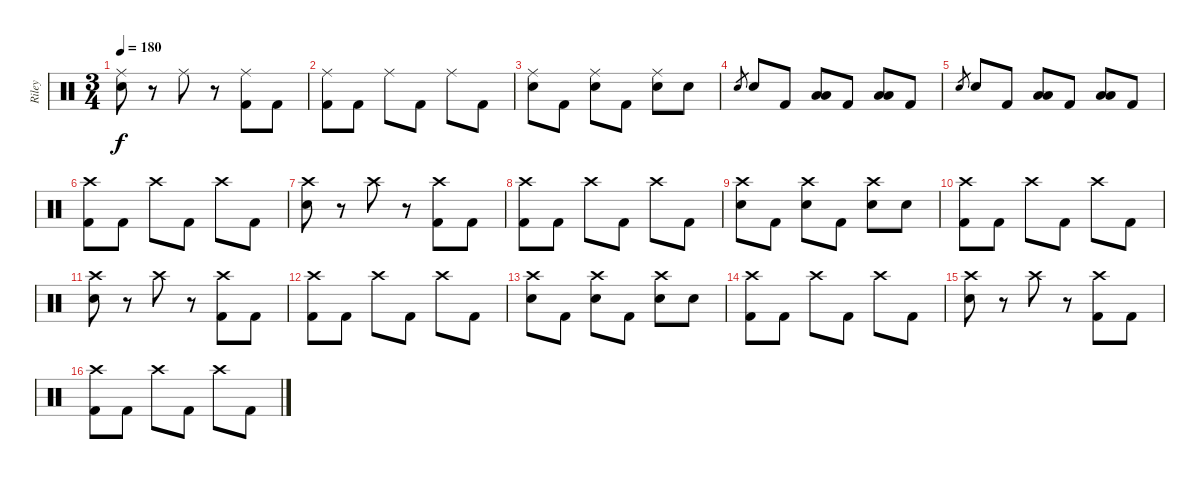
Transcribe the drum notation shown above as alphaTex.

\track ("Riley" "Riley") {instrument percussion}
\staff {score}
\articulation defaults
\ts (3 4)
\tempo 180
\clef neutral
\ks c
("Ride (middle)" "Electric Snare (hit)").8{dy f} r.8 "Ride (middle)".8 r.8 ("Ride (middle)" "Kick (hit) 2").8 "Kick (hit) 2".8 |
("Ride (middle)" "Kick (hit) 2").8 "Kick (hit) 2".8 "Ride (middle)".8 "Kick (hit) 2".8 "Ride (middle)".8 "Kick (hit) 2".8 |
("Ride (middle)" "Electric Snare (hit)").8 "Kick (hit) 2".8 ("Ride (middle)" "Electric Snare (hit)").8 "Kick (hit) 2".8 ("Ride (middle)" "Electric Snare (hit)").8 "Electric Snare (hit)".8 |
"Electric Snare (hit)".8{gr} "Electric Snare (hit)".8 "Kick (hit) 2".8 ("Low Tom (hit)" "Low Floor Tom (hit)").8 "Kick (hit) 2".8 ("Low Tom (hit)" "Low Floor Tom (hit)").8 "Kick (hit) 2".8 |
"Electric Snare (hit)".8{gr} "Electric Snare (hit)".8 "Kick (hit) 2".8 ("Low Tom (hit)" "Low Floor Tom (hit)").8 "Kick (hit) 2".8 ("Low Tom (hit)" "Low Floor Tom (hit)").8 "Kick (hit) 2".8 |
("Crash high (hit)" "Kick (hit) 2").8 "Kick (hit) 2".8 "Crash high (hit)".8 "Kick (hit) 2".8 "Crash high (hit)".8 "Kick (hit) 2".8 |
("Crash high (hit)" "Electric Snare (hit)").8 r.8 "Crash high (hit)".8 r.8 ("Crash high (hit)" "Kick (hit) 2").8 "Kick (hit) 2".8 |
("Crash high (hit)" "Kick (hit) 2").8 "Kick (hit) 2".8 "Crash high (hit)".8 "Kick (hit) 2".8 "Crash high (hit)".8 "Kick (hit) 2".8 |
("Crash high (hit)" "Electric Snare (hit)").8 "Kick (hit) 2".8 ("Crash high (hit)" "Electric Snare (hit)").8 "Kick (hit) 2".8 ("Crash high (hit)" "Electric Snare (hit)").8 "Electric Snare (hit)".8 |
("Crash high (hit)" "Kick (hit) 2").8 "Kick (hit) 2".8 "Crash high (hit)".8 "Kick (hit) 2".8 "Crash high (hit)".8 "Kick (hit) 2".8 |
("Crash high (hit)" "Electric Snare (hit)").8 r.8 "Crash high (hit)".8 r.8 ("Crash high (hit)" "Kick (hit) 2").8 "Kick (hit) 2".8 |
("Crash high (hit)" "Kick (hit) 2").8 "Kick (hit) 2".8 "Crash high (hit)".8 "Kick (hit) 2".8 "Crash high (hit)".8 "Kick (hit) 2".8 |
("Crash high (hit)" "Electric Snare (hit)").8 "Kick (hit) 2".8 ("Crash high (hit)" "Electric Snare (hit)").8 "Kick (hit) 2".8 ("Crash high (hit)" "Electric Snare (hit)").8 "Electric Snare (hit)".8 |
("Crash high (hit)" "Kick (hit) 2").8 "Kick (hit) 2".8 "Crash high (hit)".8 "Kick (hit) 2".8 "Crash high (hit)".8 "Kick (hit) 2".8 |
("Crash high (hit)" "Electric Snare (hit)").8 r.8 "Crash high (hit)".8 r.8 ("Crash high (hit)" "Kick (hit) 2").8 "Kick (hit) 2".8 |
("Crash high (hit)" "Kick (hit) 2").8 "Kick (hit) 2".8 "Crash high (hit)".8 "Kick (hit) 2".8 "Crash high (hit)".8 "Kick (hit) 2".8
